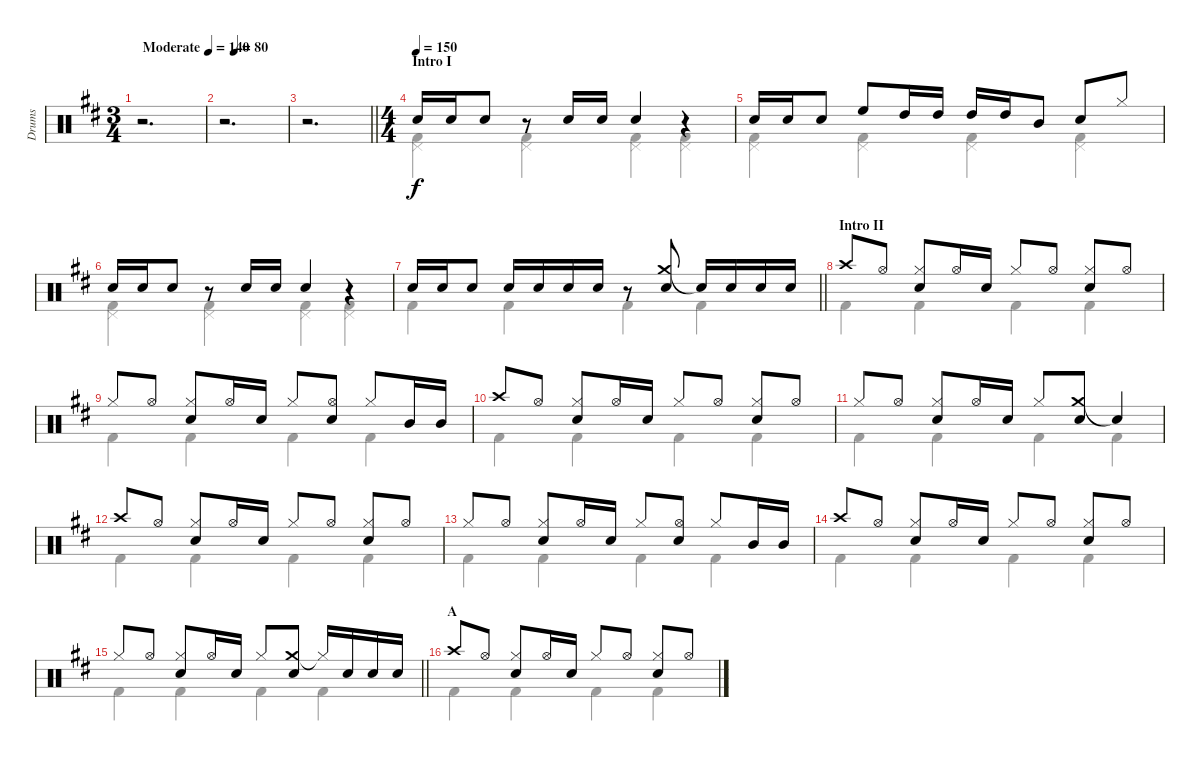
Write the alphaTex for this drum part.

\track ("Drums" "Drums") {instrument percussion}
\staff {score}
\articulation defaults
\voice
\ts (3 4)
\tempo (140 "Moderate")
\clef neutral
\ks d
r.2{d dy f} |
\tempo (80 0.16666666666666666)
r.2{d} |
\barLineRight lightlight
r.2{d} |
\ts (4 4)
\section ("" "Intro I")
\tempo (150)
"Snare (hit) 2".16 "Snare (hit) 2".16 "Snare (hit) 2".8 r.8 "Snare (hit) 2".16 "Snare (hit) 2".16 "Snare (hit) 2".4 r.4 |
"Snare (hit) 2".16 "Snare (hit) 2".16 "Snare (hit) 2".8 "High Floor Tom (hit)".8 "High Tom (hit)".16 "High Tom (hit)".16 "High Tom (hit)".16 "High Tom (hit)".16 "Mid Tom (hit)".8 "Snare (hit) 2".8 "Hi-Hat (closed)".8 |
"Snare (hit) 2".16 "Snare (hit) 2".16 "Snare (hit) 2".8 r.8 "Snare (hit) 2".16 "Snare (hit) 2".16 "Snare (hit) 2".4 r.4 |
\barLineRight lightlight "Snare (hit) 2".16 "Snare (hit) 2".16 "Snare (hit) 2".8 "Snare (hit) 2".16 "Snare (hit) 2".16 "Snare (hit) 2".16 "Snare (hit) 2".16
r.8 ("Crash medium (hit)" "Snare (hit) 2").8 "Snare (hit)"{t}.16 "Snare (hit) 2".16 "Snare (hit) 2".16 "Snare (hit) 2".16 |
\section ("" "Intro II")
"Crash high (hit)".8 "Hi-Hat (open)".8 ("Hi-Hat (closed)" "Snare (hit) 2").8 "Hi-Hat (open)".16 "Snare (hit) 2".16 "Hi-Hat (closed)".8 "Hi-Hat (open)".8 ("Hi-Hat (closed)" "Snare (hit) 2").8 "Hi-Hat (open)".8 |
"Hi-Hat (closed)".8 "Hi-Hat (open)".8 ("Hi-Hat (closed)" "Snare (hit) 2").8 "Hi-Hat (open)".16 "Snare (hit) 2".16 "Hi-Hat (closed)".8 ("Hi-Hat (open)" "Snare (hit) 2").8 "Hi-Hat (closed)".8 "Mid Tom (hit)".16 "Mid Tom (hit)".16 |
"Crash high (hit)".8 "Hi-Hat (open)".8 ("Hi-Hat (closed)" "Snare (hit) 2").8 "Hi-Hat (open)".16 "Snare (hit) 2".16 "Hi-Hat (closed)".8 "Hi-Hat (open)".8 ("Hi-Hat (closed)" "Snare (hit) 2").8 "Hi-Hat (open)".8 |
"Hi-Hat (closed)".8 "Hi-Hat (open)".8 ("Hi-Hat (closed)" "Snare (hit) 2").8 "Hi-Hat (open)".16 "Snare (hit) 2".16 "Hi-Hat (closed)".8 ("Crash medium (hit)" "Snare (hit) 2").8 "Snare (hit)"{t}.4 |
"Crash high (hit)".8 "Hi-Hat (open)".8 ("Hi-Hat (closed)" "Snare (hit) 2").8 "Hi-Hat (open)".16 "Snare (hit) 2".16 "Hi-Hat (closed)".8 "Hi-Hat (open)".8 ("Hi-Hat (closed)" "Snare (hit) 2").8 "Hi-Hat (open)".8 |
"Hi-Hat (closed)".8 "Hi-Hat (open)".8 ("Hi-Hat (closed)" "Snare (hit) 2").8 "Hi-Hat (open)".16 "Snare (hit) 2".16 "Hi-Hat (closed)".8 ("Hi-Hat (open)" "Snare (hit) 2").8 "Hi-Hat (closed)".8 "Mid Tom (hit)".16 "Mid Tom (hit)".16 |
"Crash high (hit)".8 "Hi-Hat (open)".8 ("Hi-Hat (closed)" "Snare (hit) 2").8 "Hi-Hat (open)".16 "Snare (hit) 2".16 "Hi-Hat (closed)".8 "Hi-Hat (open)".8 ("Hi-Hat (closed)" "Snare (hit) 2").8 "Hi-Hat (open)".8 |
\barLineRight lightlight "Hi-Hat (closed)".8 "Hi-Hat (open)".8
("Hi-Hat (closed)" "Snare (hit) 2").8 "Hi-Hat (open)".16 "Snare (hit) 2".16 "Hi-Hat (closed)".8 ("Crash medium (hit)" "Snare (hit) 2").8 "Hi-Hat (closed)"{t}.16 "Snare (hit) 2".16 "Snare (hit) 2".16 "Snare (hit) 2".16 |
\section ("" "A")
"Crash high (hit)".8 "Hi-Hat (open)".8 ("Hi-Hat (closed)" "Snare (hit) 2").8 "Hi-Hat (open)".16 "Snare (hit) 2".16 "Hi-Hat (closed)".8 "Hi-Hat (open)".8 ("Hi-Hat (closed)" "Snare (hit) 2").8 "Hi-Hat (open)".8
\voice
\clef neutral
\ottava regular
\simile none
\ks d
r.2{d dy f} |
r.2{d} |
\barLineRight lightlight
r.2{d} |
("Pedal Hi-Hat (hit)" "Kick (hit) 2").4 ("Pedal Hi-Hat (hit)" "Kick (hit) 2").4 ("Pedal Hi-Hat (hit)" "Kick (hit) 2").4 ("Pedal Hi-Hat (hit)" "Kick (hit) 2").4 |
("Pedal Hi-Hat (hit)" "Kick (hit) 2").4 ("Pedal Hi-Hat (hit)" "Kick (hit) 2").4 ("Pedal Hi-Hat (hit)" "Kick (hit) 2").4 ("Pedal Hi-Hat (hit)" "Kick (hit) 2").4 |
("Pedal Hi-Hat (hit)" "Kick (hit) 2").4 ("Pedal Hi-Hat (hit)" "Kick (hit) 2").4 ("Pedal Hi-Hat (hit)" "Kick (hit) 2").4 ("Pedal Hi-Hat (hit)" "Kick (hit) 2").4 |
\barLineRight lightlight "Kick (hit) 2".4 "Kick (hit) 2".4 "Kick (hit) 2".4 "Kick (hit) 2".4
|
"Kick (hit) 2".4 "Kick (hit) 2".4 "Kick (hit) 2".4 "Kick (hit) 2".4 |
"Kick (hit) 2".4 "Kick (hit) 2".4 "Kick (hit) 2".4 "Kick (hit) 2".4 |
"Kick (hit) 2".4 "Kick (hit) 2".4 "Kick (hit) 2".4 "Kick (hit) 2".4 |
"Kick (hit) 2".4 "Kick (hit) 2".4 "Kick (hit) 2".4 "Kick (hit) 2".4 |
"Kick (hit) 2".4 "Kick (hit) 2".4 "Kick (hit) 2".4 "Kick (hit) 2".4 |
"Kick (hit) 2".4 "Kick (hit) 2".4 "Kick (hit) 2".4 "Kick (hit) 2".4 |
"Kick (hit) 2".4 "Kick (hit) 2".4 "Kick (hit) 2".4 "Kick (hit) 2".4 |
\barLineRight lightlight "Kick (hit) 2".4 "Kick (hit) 2".4 "Kick (hit) 2".4 "Kick (hit) 2".4
|
"Kick (hit) 2".4 "Kick (hit) 2".4 "Kick (hit) 2".4 "Kick (hit) 2".4
